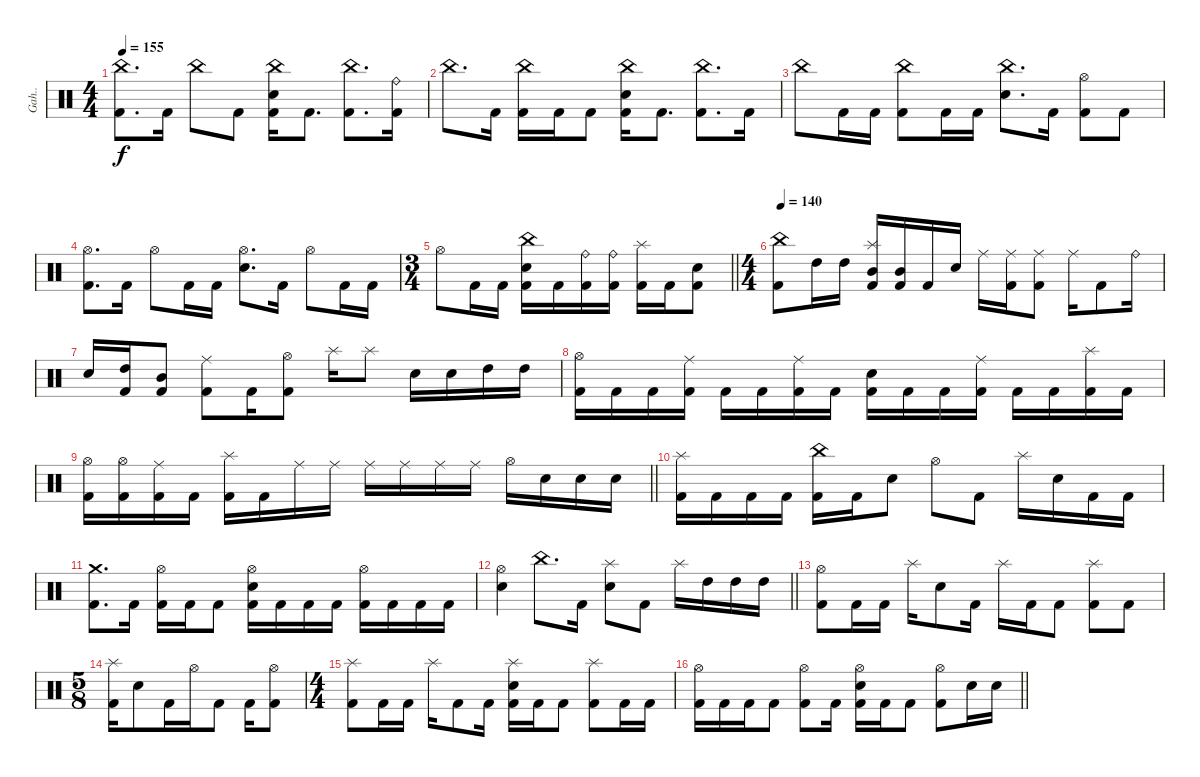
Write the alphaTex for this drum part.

\track ("Gah.." "Gah..") {instrument percussion}
\staff {score}
\articulation defaults
\ts (4 4)
\tempo 155
\clef neutral
\ks c
("China (hit)" "Kick (hit) 2").8{d dy f} "Kick (hit) 2".16 "China (hit)".8 "Kick (hit) 2".8 ("China (hit)" "Electric Snare (hit)" "Kick (hit) 2").16 "Kick (hit) 2".8{d} ("China (hit)" "Kick (hit) 2").8{d} ("Ride (bell)" "Kick (hit) 2").16 |
"China (hit)".8{d} "Kick (hit) 2".16 ("China (hit)" "Kick (hit) 2").16 "Kick (hit) 2".16 "Kick (hit) 2".8 ("China (hit)" "Electric Snare (hit)" "Kick (hit) 2").16 "Kick (hit) 2".8{d} ("China (hit)" "Kick (hit) 2").8{d} "Kick (hit) 2".16 |
"China (hit)".8 "Kick (hit) 2".16 "Kick (hit) 2".16 ("China (hit)" "Kick (hit) 2").8 "Kick (hit) 2".16 "Kick (hit) 2".16 ("China (hit)" "Electric Snare (hit)").8{d} "Kick (hit) 2".16 ("Hi-Hat (open)" "Kick (hit) 2").8 "Kick (hit) 2".8 |
("Hi-Hat (open)" "Kick (hit) 2").8{d} "Kick (hit) 2".16 "Hi-Hat (open)".8 "Kick (hit) 2".16 "Kick (hit) 2".16 ("Hi-Hat (open)" "Electric Snare (hit)").8{d} "Kick (hit) 2".16 "Hi-Hat (open)".8 "Kick (hit) 2".16 "Kick (hit) 2".16 |
\ts (3 4)
\barLineRight lightlight "Hi-Hat (open)".8 "Kick (hit) 2".16 "Kick (hit) 2".16
("China (hit)" "Electric Snare (hit)" "Kick (hit) 2").16 "Kick (hit) 2".16 ("Ride (bell)" "Kick (hit) 2").16 ("Ride (bell)" "Kick (hit) 2").16 ("Splash (hit)" "Kick (hit) 2").16 "Kick (hit) 2".16 ("Electric Snare (hit)" "Kick (hit) 2").8 |
\ts (4 4)
\section ("" "")
\tempo 140
("China (hit)" "Kick (hit) 2").8 "High Tom (hit)".16 "High Tom (hit)".16 ("Splash (hit)" "Mid Tom (hit)" "Kick (hit) 2").16 ("Mid Tom (hit)" "Kick (hit) 2").16 "Kick (hit) 2".16 "Electric Snare (hit)".16 "Ride (middle)".16 ("Ride (middle)" "Kick (hit) 2").16 ("Ride (middle)" "Kick (hit) 2").8 "Ride (middle)".16 "Kick (hit) 2".8 "Ride (bell)".16 |
"Electric Snare (hit)".16 ("High Tom (hit)" "Kick (hit) 2").16 ("Mid Tom (hit)" "Kick (hit) 2").8 ("Ride (middle)" "Kick (hit) 2").8 "Kick (hit) 2".16 ("Hi-Hat (open)" "Kick (hit) 2").8 "Splash (hit)".16 "Splash (hit)".8 "Electric Snare (hit)".16 "Electric Snare (hit)".16 "High Tom (hit)".16 "High Tom (hit)".16 |
("Hi-Hat (open)" "Kick (hit) 2").16 "Kick (hit) 2".16 "Kick (hit) 2".16 ("Ride (middle)" "Kick (hit) 2").16 "Kick (hit) 2".16 "Kick (hit) 2".16 ("Ride (middle)" "Kick (hit) 2").16 "Kick (hit) 2".16 ("Electric Snare (hit)" "Kick (hit) 2").16 "Kick (hit) 2".16 "Kick (hit) 2".16 ("Ride (middle)" "Kick (hit) 2").16 "Kick (hit) 2".16 "Kick (hit) 2".16 ("Splash (hit)" "Kick (hit) 2").16 "Kick (hit) 2".16 |
\barLineRight lightlight
("Hi-Hat (open)" "Kick (hit) 2").16 ("Hi-Hat (open)" "Kick (hit) 2").16 ("Ride (middle)" "Kick (hit) 2").16 "Kick (hit) 2".16 ("Splash (hit)" "Kick (hit) 2").16 "Kick (hit) 2".16 "Ride (middle)".16 "Ride (middle)".16 "Ride (middle)".16 "Ride (middle)".16 "Ride (middle)".16 "Ride (middle)".16 "Hi-Hat (open)".16 "Electric Snare (hit)".16 "Electric Snare (hit)".16 "Electric Snare (hit)".16 |
\section ("" "")
("Splash (hit)" "Kick (hit) 2").16 "Kick (hit) 2".16 "Kick (hit) 2".16 "Kick (hit) 2".16 ("China (hit)" "Kick (hit) 2").16 "Kick (hit) 2".16 "Electric Snare (hit)".8 "Hi-Hat (open)".8 "Kick (hit) 2".8 "Splash (hit)".16 "Electric Snare (hit)".16 "Kick (hit) 2".16 "Kick (hit) 2".16 |
("Crash medium (hit)" "Kick (hit) 2").8{d} "Kick (hit) 2".16 ("Hi-Hat (open)" "Kick (hit) 2").16 "Kick (hit) 2".16 "Kick (hit) 2".8 ("Hi-Hat (open)" "Electric Snare (hit)" "Kick (hit) 2").16 "Kick (hit) 2".16 "Kick (hit) 2".16 "Kick (hit) 2".16 ("Hi-Hat (open)" "Kick (hit) 2").16 "Kick (hit) 2".16 "Kick (hit) 2".16 "Kick (hit) 2".16 |
\barLineRight lightlight
("Hi-Hat (open)" "Electric Snare (hit)").4 "China (hit)".8{d} "Kick (hit) 2".16 ("Splash (hit)" "Electric Snare (hit)").8 "Kick (hit) 2".8 "Splash (hit)".16 "High Tom (hit)".16 "High Tom (hit)".16 "High Tom (hit)".16 |
\section ("" "")
("Hi-Hat (open)" "Kick (hit) 2").8 "Kick (hit) 2".16 "Kick (hit) 2".16 "Splash (hit)".16 "Electric Snare (hit)".8 "Kick (hit) 2".16 "Splash (hit)".16 "Kick (hit) 2".16 "Kick (hit) 2".8 ("Splash (hit)" "Kick (hit) 2").8 "Kick (hit) 2".8 |
\ts (5 8)
("Splash (hit)" "Kick (hit) 2").16 "Electric Snare (hit)".8 "Kick (hit) 2".16 "Hi-Hat (open)".16 "Kick (hit) 2".8 "Kick (hit) 2".16 ("Hi-Hat (open)" "Kick (hit) 2").8 |
\ts (4 4)
("Splash (hit)" "Kick (hit) 2").8 "Kick (hit) 2".16 "Kick (hit) 2".16 "Splash (hit)".16 "Kick (hit) 2".8 "Kick (hit) 2".16 ("Splash (hit)" "Electric Snare (hit)" "Kick (hit) 2").16 "Kick (hit) 2".16 "Kick (hit) 2".8 ("Splash (hit)" "Kick (hit) 2").8 "Kick (hit) 2".16 "Kick (hit) 2".16 |
\barLineRight lightlight
("Hi-Hat (open)" "Kick (hit) 2").16 "Kick (hit) 2".16 "Kick (hit) 2".16 "Kick (hit) 2".8 ("Hi-Hat (open)" "Kick (hit) 2").8 "Kick (hit) 2".16 ("Hi-Hat (open)" "Electric Snare (hit)" "Kick (hit) 2").16 "Kick (hit) 2".16 "Kick (hit) 2".8 ("Hi-Hat (open)" "Kick (hit) 2").8 "Electric Snare (hit)".16 "Electric Snare (hit)".16
